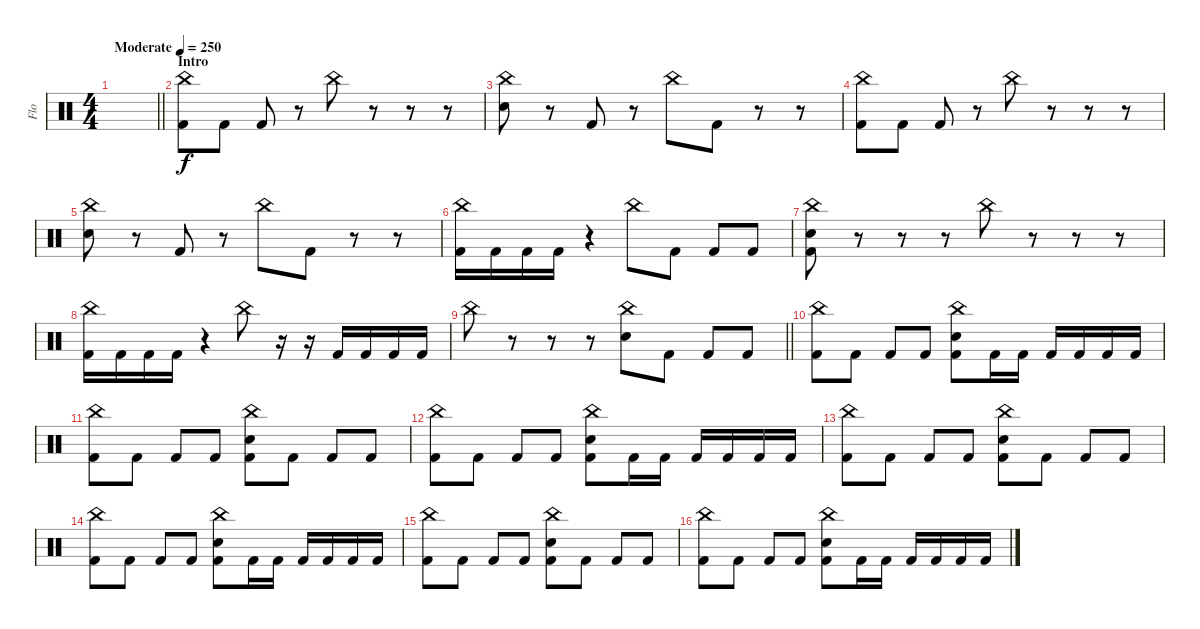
\track ("Flo" "Flo") {instrument percussion}
\staff {score}
\articulation defaults
\ts (4 4)
\tempo (250 "Moderate")
\clef neutral
\barLineRight lightlight
\ks c
|
\section ("" "Intro")
("China (hit)" "Kick (hit) 2").8 "Kick (hit) 2".8 "Kick (hit) 2".8 r.8 "China (hit)".8 r.8 r.8 r.8 |
("China (hit)" "Electric Snare (hit)").8 r.8 "Kick (hit) 2".8 r.8 "China (hit)".8 "Kick (hit) 2".8 r.8 r.8 |
("China (hit)" "Kick (hit) 2").8 "Kick (hit) 2".8 "Kick (hit) 2".8 r.8 "China (hit)".8 r.8 r.8 r.8 |
("China (hit)" "Electric Snare (hit)").8 r.8 "Kick (hit) 2".8 r.8 "China (hit)".8 "Kick (hit) 2".8 r.8 r.8 |
("China (hit)" "Kick (hit) 2").16 "Kick (hit) 2".16 "Kick (hit) 2".16 "Kick (hit) 2".16 r.4 "China (hit)".8 "Kick (hit) 2".8 "Kick (hit) 2".8 "Kick (hit) 2".8 |
("China (hit)" "Electric Snare (hit)" "Kick (hit) 2").8 r.8 r.8 r.8 "China (hit)".8 r.8 r.8 r.8 |
("China (hit)" "Kick (hit) 2").16 "Kick (hit) 2".16 "Kick (hit) 2".16 "Kick (hit) 2".16 r.4 "China (hit)".8 r.16 r.16 "Kick (hit) 2".16 "Kick (hit) 2".16 "Kick (hit) 2".16 "Kick (hit) 2".16 |
\barLineRight lightlight "China (hit)".8
r.8 r.8 r.8 ("China (hit)" "Electric Snare (hit)").8 "Kick (hit) 2".8 "Kick (hit) 2".8 "Kick (hit) 2".8 |
("China (hit)" "Kick (hit) 2").8 "Kick (hit) 2".8 "Kick (hit) 2".8 "Kick (hit) 2".8 ("China (hit)" "Electric Snare (hit)" "Kick (hit) 2").8 "Kick (hit) 2".16 "Kick (hit) 2".16 "Kick (hit) 2".16 "Kick (hit) 2".16 "Kick (hit) 2".16 "Kick (hit) 2".16 |
("China (hit)" "Kick (hit) 2").8 "Kick (hit) 2".8 "Kick (hit) 2".8 "Kick (hit) 2".8 ("China (hit)" "Electric Snare (hit)" "Kick (hit) 2").8 "Kick (hit) 2".8 "Kick (hit) 2".8 "Kick (hit) 2".8 |
("China (hit)" "Kick (hit) 2").8 "Kick (hit) 2".8 "Kick (hit) 2".8 "Kick (hit) 2".8 ("China (hit)" "Electric Snare (hit)" "Kick (hit) 2").8 "Kick (hit) 2".16 "Kick (hit) 2".16 "Kick (hit) 2".16 "Kick (hit) 2".16 "Kick (hit) 2".16 "Kick (hit) 2".16 |
("China (hit)" "Kick (hit) 2").8 "Kick (hit) 2".8 "Kick (hit) 2".8 "Kick (hit) 2".8 ("China (hit)" "Electric Snare (hit)" "Kick (hit) 2").8 "Kick (hit) 2".8 "Kick (hit) 2".8 "Kick (hit) 2".8 |
("China (hit)" "Kick (hit) 2").8 "Kick (hit) 2".8 "Kick (hit) 2".8 "Kick (hit) 2".8 ("China (hit)" "Electric Snare (hit)" "Kick (hit) 2").8 "Kick (hit) 2".16 "Kick (hit) 2".16 "Kick (hit) 2".16 "Kick (hit) 2".16 "Kick (hit) 2".16 "Kick (hit) 2".16 |
("China (hit)" "Kick (hit) 2").8 "Kick (hit) 2".8 "Kick (hit) 2".8 "Kick (hit) 2".8 ("China (hit)" "Electric Snare (hit)" "Kick (hit) 2").8 "Kick (hit) 2".8 "Kick (hit) 2".8 "Kick (hit) 2".8 |
("China (hit)" "Kick (hit) 2").8 "Kick (hit) 2".8 "Kick (hit) 2".8 "Kick (hit) 2".8 ("China (hit)" "Electric Snare (hit)" "Kick (hit) 2").8 "Kick (hit) 2".16 "Kick (hit) 2".16 "Kick (hit) 2".16 "Kick (hit) 2".16 "Kick (hit) 2".16 "Kick (hit) 2".16
